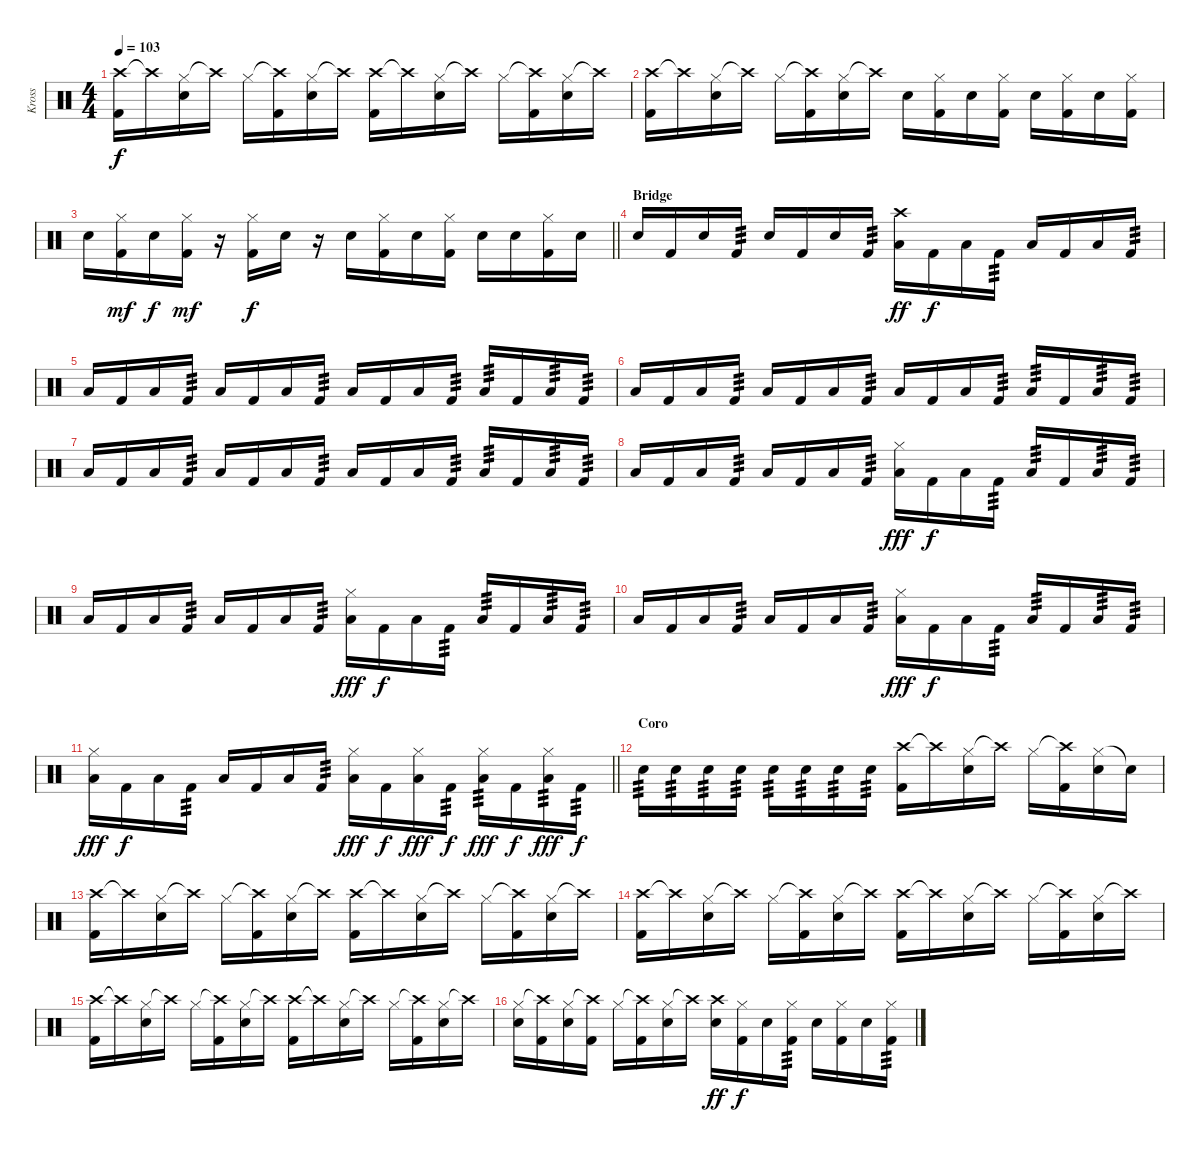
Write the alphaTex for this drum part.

\track ("Kross" "Kross") {instrument percussion}
\staff {score}
\articulation defaults
\ts (4 4)
\tempo 103
\clef neutral
\ks c
("Crash high (hit)" "Kick (hit) 2").16{dy f} "Crash high (hit)"{t}.16 ("Hi-Hat (closed)" "Electric Snare (hit)").16 "Crash high (hit)"{t}.16 "Hi-Hat (closed)".16 ("Crash high (hit)"{t} "Kick (hit) 2").16 ("Hi-Hat (closed)" "Electric Snare (hit)").16 "Crash high (hit)"{t}.16 ("Crash high (hit)" "Kick (hit) 2").16 "Crash high (hit)"{t}.16 ("Hi-Hat (closed)" "Electric Snare (hit)").16 "Crash high (hit)"{t}.16 "Hi-Hat (closed)".16 ("Crash high (hit)"{t} "Kick (hit) 2").16 ("Hi-Hat (closed)" "Electric Snare (hit)").16 "Crash high (hit)"{t}.16 |
("Crash high (hit)" "Kick (hit) 2").16 "Crash high (hit)"{t}.16 ("Hi-Hat (closed)" "Electric Snare (hit)").16 "Crash high (hit)"{t}.16 "Hi-Hat (closed)".16 ("Crash high (hit)"{t} "Kick (hit) 2").16 ("Hi-Hat (closed)" "Electric Snare (hit)").16 "Crash high (hit)"{t}.16 "Electric Snare (hit)".16 ("Hi-Hat (closed)" "Kick (hit) 2").16 "Electric Snare (hit)".16 ("Hi-Hat (closed)" "Kick (hit) 2").16 "Electric Snare (hit)".16 ("Hi-Hat (closed)" "Kick (hit) 2").16 "Electric Snare (hit)".16 ("Hi-Hat (closed)" "Kick (hit) 2").16 |
\barLineRight lightlight "Electric Snare (hit)".16
("Hi-Hat (closed)" "Kick (hit) 2").16{dy mf} "Electric Snare (hit)".16{dy f} ("Hi-Hat (closed)" "Kick (hit) 2").16{dy mf} r.16 ("Hi-Hat (closed)" "Kick (hit) 2").16{dy f} "Electric Snare (hit)".16 r.16 "Electric Snare (hit)".16 ("Hi-Hat (closed)" "Kick (hit) 2").16 "Electric Snare (hit)".16 ("Hi-Hat (closed)" "Kick (hit) 2").16 "Electric Snare (hit)".16 "Electric Snare (hit)".16 ("Hi-Hat (closed)" "Kick (hit) 2").16 "Electric Snare (hit)".16 |
\section ("" "Bridge")
"Electric Snare (hit)".16 "Kick (hit) 2".16 "Electric Snare (hit)".16 "Kick (hit) 2".16{tp 3} "Electric Snare (hit)".16 "Kick (hit) 2".16 "Electric Snare (hit)".16 "Kick (hit) 2".16{tp 3} ("Crash high (hit)" "Low Tom (hit)").16{dy ff} "Kick (hit) 2".16{dy f} "Low Tom (hit)".16 "Kick (hit) 2".16{tp 3} "Low Tom (hit)".16 "Kick (hit) 2".16 "Low Tom (hit)".16 "Kick (hit) 2".16{tp 3} |
"Low Tom (hit)".16 "Kick (hit) 2".16 "Low Tom (hit)".16 "Kick (hit) 2".16{tp 3} "Low Tom (hit)".16 "Kick (hit) 2".16 "Low Tom (hit)".16 "Kick (hit) 2".16{tp 3} "Low Tom (hit)".16 "Kick (hit) 2".16 "Low Tom (hit)".16 "Kick (hit) 2".16{tp 3} "Low Tom (hit)".16{tp 3} "Kick (hit) 2".16 "Low Tom (hit)".16{tp 3} "Kick (hit) 2".16{tp 3} |
"Low Tom (hit)".16 "Kick (hit) 2".16 "Low Tom (hit)".16 "Kick (hit) 2".16{tp 3} "Low Tom (hit)".16 "Kick (hit) 2".16 "Low Tom (hit)".16 "Kick (hit) 2".16{tp 3} "Low Tom (hit)".16 "Kick (hit) 2".16 "Low Tom (hit)".16 "Kick (hit) 2".16{tp 3} "Low Tom (hit)".16{tp 3} "Kick (hit) 2".16 "Low Tom (hit)".16{tp 3} "Kick (hit) 2".16{tp 3} |
"Low Tom (hit)".16 "Kick (hit) 2".16 "Low Tom (hit)".16 "Kick (hit) 2".16{tp 3} "Low Tom (hit)".16 "Kick (hit) 2".16 "Low Tom (hit)".16 "Kick (hit) 2".16{tp 3} "Low Tom (hit)".16 "Kick (hit) 2".16 "Low Tom (hit)".16 "Kick (hit) 2".16{tp 3} "Low Tom (hit)".16{tp 3} "Kick (hit) 2".16 "Low Tom (hit)".16{tp 3} "Kick (hit) 2".16{tp 3} |
"Low Tom (hit)".16 "Kick (hit) 2".16 "Low Tom (hit)".16 "Kick (hit) 2".16{tp 3} "Low Tom (hit)".16 "Kick (hit) 2".16 "Low Tom (hit)".16 "Kick (hit) 2".16{tp 3} ("Hi-Hat (closed)" "Low Tom (hit)").16{dy fff} "Kick (hit) 2".16{dy f} "Low Tom (hit)".16 "Kick (hit) 2".16{tp 3} "Low Tom (hit)".16{tp 3} "Kick (hit) 2".16 "Low Tom (hit)".16{tp 3} "Kick (hit) 2".16{tp 3} |
"Low Tom (hit)".16 "Kick (hit) 2".16 "Low Tom (hit)".16 "Kick (hit) 2".16{tp 3} "Low Tom (hit)".16 "Kick (hit) 2".16 "Low Tom (hit)".16 "Kick (hit) 2".16{tp 3} ("Hi-Hat (closed)" "Low Tom (hit)").16{dy fff} "Kick (hit) 2".16{dy f} "Low Tom (hit)".16 "Kick (hit) 2".16{tp 3} "Low Tom (hit)".16{tp 3} "Kick (hit) 2".16 "Low Tom (hit)".16{tp 3} "Kick (hit) 2".16{tp 3} |
"Low Tom (hit)".16 "Kick (hit) 2".16 "Low Tom (hit)".16 "Kick (hit) 2".16{tp 3} "Low Tom (hit)".16 "Kick (hit) 2".16 "Low Tom (hit)".16 "Kick (hit) 2".16{tp 3} ("Hi-Hat (closed)" "Low Tom (hit)").16{dy fff} "Kick (hit) 2".16{dy f} "Low Tom (hit)".16 "Kick (hit) 2".16{tp 3} "Low Tom (hit)".16{tp 3} "Kick (hit) 2".16 "Low Tom (hit)".16{tp 3} "Kick (hit) 2".16{tp 3} |
\barLineRight lightlight
("Hi-Hat (closed)" "Low Tom (hit)").16{dy fff} "Kick (hit) 2".16{dy f} "Low Tom (hit)".16 "Kick (hit) 2".16{tp 3} "Low Tom (hit)".16 "Kick (hit) 2".16 "Low Tom (hit)".16 "Kick (hit) 2".16{tp 3} ("Hi-Hat (closed)" "Low Tom (hit)").16{dy fff} "Kick (hit) 2".16{dy f} ("Hi-Hat (closed)" "Low Tom (hit)").16{dy fff} "Kick (hit) 2".16{tp 3 dy f} ("Hi-Hat (closed)" "Low Tom (hit)").16{tp 3 dy fff} "Kick (hit) 2".16{dy f} ("Hi-Hat (closed)" "Low Tom (hit)").16{tp 3 dy fff} "Kick (hit) 2".16{tp 3 dy f} |
\section ("" "Coro")
"Electric Snare (hit)".16{tp 3} "Electric Snare (hit)".16{tp 3} "Electric Snare (hit)".16{tp 3} "Electric Snare (hit)".16{tp 3} "Electric Snare (hit)".16{tp 3} "Electric Snare (hit)".16{tp 3} "Electric Snare (hit)".16{tp 3} "Electric Snare (hit)".16{tp 3} ("Crash high (hit)" "Kick (hit) 2").16 "Crash high (hit)"{t}.16 ("Hi-Hat (closed)" "Electric Snare (hit)").16 "Crash high (hit)"{t}.16 "Hi-Hat (closed)".16 ("Crash high (hit)"{t} "Kick (hit) 2").16 ("Hi-Hat (closed)" "Electric Snare (hit)").16 "Snare (hit)"{t}.16 |
("Crash high (hit)" "Kick (hit) 2").16 "Crash high (hit)"{t}.16 ("Hi-Hat (closed)" "Electric Snare (hit)").16 "Crash high (hit)"{t}.16 "Hi-Hat (closed)".16 ("Crash high (hit)"{t} "Kick (hit) 2").16 ("Hi-Hat (closed)" "Electric Snare (hit)").16 "Crash high (hit)"{t}.16 ("Crash high (hit)" "Kick (hit) 2").16 "Crash high (hit)"{t}.16 ("Hi-Hat (closed)" "Electric Snare (hit)").16 "Crash high (hit)"{t}.16 "Hi-Hat (closed)".16 ("Crash high (hit)"{t} "Kick (hit) 2").16 ("Hi-Hat (closed)" "Electric Snare (hit)").16 "Crash high (hit)"{t}.16 |
("Crash high (hit)" "Kick (hit) 2").16 "Crash high (hit)"{t}.16 ("Hi-Hat (closed)" "Electric Snare (hit)").16 "Crash high (hit)"{t}.16 "Hi-Hat (closed)".16 ("Crash high (hit)"{t} "Kick (hit) 2").16 ("Hi-Hat (closed)" "Electric Snare (hit)").16 "Crash high (hit)"{t}.16 ("Crash high (hit)" "Kick (hit) 2").16 "Crash high (hit)"{t}.16 ("Hi-Hat (closed)" "Electric Snare (hit)").16 "Crash high (hit)"{t}.16 "Hi-Hat (closed)".16 ("Crash high (hit)"{t} "Kick (hit) 2").16 ("Hi-Hat (closed)" "Electric Snare (hit)").16 "Crash high (hit)"{t}.16 |
("Crash high (hit)" "Kick (hit) 2").16 "Crash high (hit)"{t}.16 ("Hi-Hat (closed)" "Electric Snare (hit)").16 "Crash high (hit)"{t}.16 "Hi-Hat (closed)".16 ("Crash high (hit)"{t} "Kick (hit) 2").16 ("Hi-Hat (closed)" "Electric Snare (hit)").16 "Crash high (hit)"{t}.16 ("Crash high (hit)" "Kick (hit) 2").16 "Crash high (hit)"{t}.16 ("Hi-Hat (closed)" "Electric Snare (hit)").16 "Crash high (hit)"{t}.16 "Hi-Hat (closed)".16 ("Crash high (hit)"{t} "Kick (hit) 2").16 ("Hi-Hat (closed)" "Electric Snare (hit)").16 "Crash high (hit)"{t}.16 |
("Hi-Hat (closed)" "Electric Snare (hit)").16 ("Crash high (hit)"{t} "Kick (hit) 2").16 ("Hi-Hat (closed)" "Electric Snare (hit)").16 ("Crash high (hit)"{t} "Kick (hit) 2").16 "Hi-Hat (closed)".16 ("Crash high (hit)"{t} "Kick (hit) 2").16 ("Hi-Hat (closed)" "Electric Snare (hit)").16 "Crash high (hit)"{t}.16 ("Crash high (hit)" "Electric Snare (hit)").16{dy ff} ("Hi-Hat (closed)" "Kick (hit) 2").16{dy f} "Electric Snare (hit)".16 ("Hi-Hat (closed)" "Kick (hit) 2").16{tp 3} "Electric Snare (hit)".16 ("Hi-Hat (closed)" "Kick (hit) 2").16 "Electric Snare (hit)".16 ("Hi-Hat (closed)" "Kick (hit) 2").16{tp 3}
